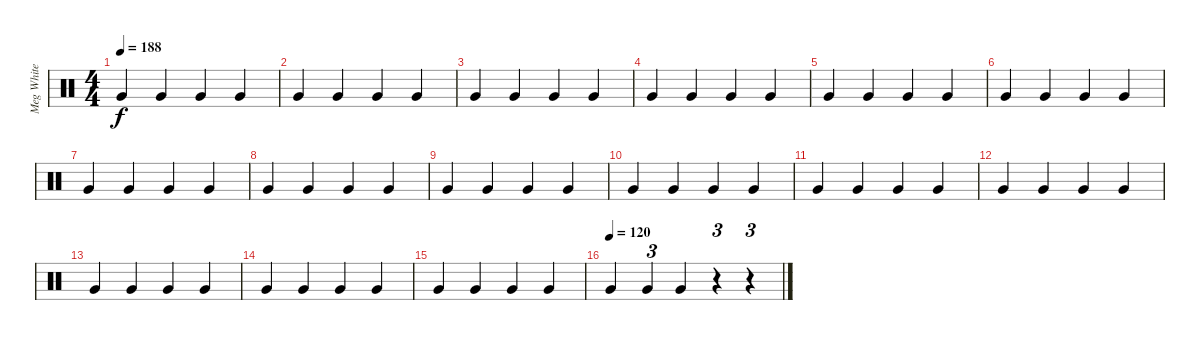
\track ("Meg White" "Meg White") {instrument percussion}
\staff {score}
\articulation defaults
\ts (4 4)
\tempo 188
\clef neutral
\ks c "Very Low Tom (hit)".4{dy f} "Very Low Tom (hit)".4 "Very Low Tom (hit)".4 "Very Low Tom (hit)".4
|
"Very Low Tom (hit)".4 "Very Low Tom (hit)".4 "Very Low Tom (hit)".4 "Very Low Tom (hit)".4 |
"Very Low Tom (hit)".4 "Very Low Tom (hit)".4 "Very Low Tom (hit)".4 "Very Low Tom (hit)".4 |
"Very Low Tom (hit)".4 "Very Low Tom (hit)".4 "Very Low Tom (hit)".4 "Very Low Tom (hit)".4 |
"Very Low Tom (hit)".4 "Very Low Tom (hit)".4 "Very Low Tom (hit)".4 "Very Low Tom (hit)".4 |
"Very Low Tom (hit)".4 "Very Low Tom (hit)".4 "Very Low Tom (hit)".4 "Very Low Tom (hit)".4 |
"Very Low Tom (hit)".4 "Very Low Tom (hit)".4 "Very Low Tom (hit)".4 "Very Low Tom (hit)".4 |
"Very Low Tom (hit)".4 "Very Low Tom (hit)".4 "Very Low Tom (hit)".4 "Very Low Tom (hit)".4 |
"Very Low Tom (hit)".4 "Very Low Tom (hit)".4 "Very Low Tom (hit)".4 "Very Low Tom (hit)".4 |
"Very Low Tom (hit)".4 "Very Low Tom (hit)".4 "Very Low Tom (hit)".4 "Very Low Tom (hit)".4 |
"Very Low Tom (hit)".4 "Very Low Tom (hit)".4 "Very Low Tom (hit)".4 "Very Low Tom (hit)".4 |
"Very Low Tom (hit)".4 "Very Low Tom (hit)".4 "Very Low Tom (hit)".4 "Very Low Tom (hit)".4 |
"Very Low Tom (hit)".4 "Very Low Tom (hit)".4 "Very Low Tom (hit)".4 "Very Low Tom (hit)".4 |
"Very Low Tom (hit)".4 "Very Low Tom (hit)".4 "Very Low Tom (hit)".4 "Very Low Tom (hit)".4 |
"Very Low Tom (hit)".4 "Very Low Tom (hit)".4 "Very Low Tom (hit)".4 "Very Low Tom (hit)".4 |
\tempo (120)
"Very Low Tom (hit)".4 "Very Low Tom (hit)".4{tu (3 2)} "Very Low Tom (hit)".4 r.4{tu (3 2)} r.4{tu (3 2)}
